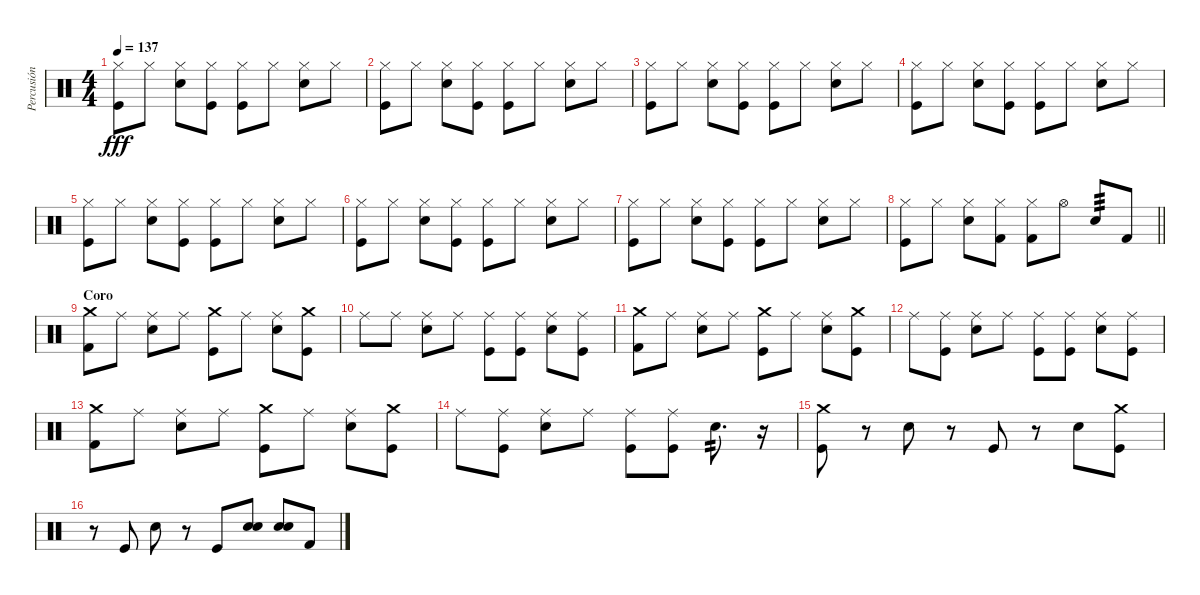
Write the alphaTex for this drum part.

\track ("Percusión" "Percusión") {instrument percussion}
\staff {score}
\articulation defaults
\ts (4 4)
\tempo 137
\clef neutral
\ks c
("Hi-Hat (closed)" "Kick (hit)").8{dy fff} "Hi-Hat (closed)".8 ("Hi-Hat (closed)" "Electric Snare (hit)").8 ("Hi-Hat (closed)" "Kick (hit)").8 ("Hi-Hat (closed)" "Kick (hit)").8 "Hi-Hat (closed)".8 ("Hi-Hat (closed)" "Electric Snare (hit)").8 "Hi-Hat (closed)".8 |
("Hi-Hat (closed)" "Kick (hit)").8 "Hi-Hat (closed)".8 ("Hi-Hat (closed)" "Electric Snare (hit)").8 ("Hi-Hat (closed)" "Kick (hit)").8 ("Hi-Hat (closed)" "Kick (hit)").8 "Hi-Hat (closed)".8 ("Hi-Hat (closed)" "Electric Snare (hit)").8 "Hi-Hat (closed)".8 |
("Hi-Hat (closed)" "Kick (hit)").8 "Hi-Hat (closed)".8 ("Hi-Hat (closed)" "Electric Snare (hit)").8 ("Hi-Hat (closed)" "Kick (hit)").8 ("Hi-Hat (closed)" "Kick (hit)").8 "Hi-Hat (closed)".8 ("Hi-Hat (closed)" "Electric Snare (hit)").8 "Hi-Hat (closed)".8 |
("Hi-Hat (closed)" "Kick (hit)").8 "Hi-Hat (closed)".8 ("Hi-Hat (closed)" "Electric Snare (hit)").8 ("Hi-Hat (closed)" "Kick (hit)").8 ("Hi-Hat (closed)" "Kick (hit)").8 "Hi-Hat (closed)".8 ("Hi-Hat (closed)" "Electric Snare (hit)").8 "Hi-Hat (closed)".8 |
("Hi-Hat (closed)" "Kick (hit)").8 "Hi-Hat (closed)".8 ("Hi-Hat (closed)" "Electric Snare (hit)").8 ("Hi-Hat (closed)" "Kick (hit)").8 ("Hi-Hat (closed)" "Kick (hit)").8 "Hi-Hat (closed)".8 ("Hi-Hat (closed)" "Electric Snare (hit)").8 "Hi-Hat (closed)".8 |
("Hi-Hat (closed)" "Kick (hit)").8 "Hi-Hat (closed)".8 ("Hi-Hat (closed)" "Electric Snare (hit)").8 ("Hi-Hat (closed)" "Kick (hit)").8 ("Hi-Hat (closed)" "Kick (hit)").8 "Hi-Hat (closed)".8 ("Hi-Hat (closed)" "Electric Snare (hit)").8 "Hi-Hat (closed)".8 |
("Hi-Hat (closed)" "Kick (hit)").8 "Hi-Hat (closed)".8 ("Hi-Hat (closed)" "Electric Snare (hit)").8 ("Hi-Hat (closed)" "Kick (hit)").8 ("Hi-Hat (closed)" "Kick (hit)").8 "Hi-Hat (closed)".8 ("Hi-Hat (closed)" "Electric Snare (hit)").8 "Hi-Hat (closed)".8 |
\barLineRight lightlight
("Hi-Hat (closed)" "Kick (hit)").8 "Hi-Hat (closed)".8 ("Hi-Hat (closed)" "Electric Snare (hit)").8 ("Hi-Hat (closed)" "Kick (hit) 2").8 ("Hi-Hat (closed)" "Kick (hit) 2").8 "Hi-Hat (open)".8 "Electric Snare (hit)".8{tp 3} "Kick (hit) 2".8 |
\section ("" "Coro")
("Crash medium (hit)" "Kick (hit) 2").8 "Ride (middle)".8 ("Ride (middle)" "Electric Snare (hit)").8 "Ride (middle)".8 ("Crash medium (hit)" "Kick (hit)").8 "Ride (middle)".8 ("Ride (middle)" "Electric Snare (hit)").8 ("Crash medium (hit)" "Kick (hit)").8 |
"Ride (middle)".8 "Ride (middle)".8 ("Ride (middle)" "Electric Snare (hit)").8 "Ride (middle)".8 ("Ride (middle)" "Kick (hit)").8 ("Ride (middle)" "Kick (hit)").8 ("Ride (middle)" "Electric Snare (hit)").8 ("Ride (middle)" "Kick (hit)").8 |
("Crash medium (hit)" "Kick (hit) 2").8 "Ride (middle)".8 ("Ride (middle)" "Electric Snare (hit)").8 "Ride (middle)".8 ("Crash medium (hit)" "Kick (hit)").8 "Ride (middle)".8 ("Ride (middle)" "Electric Snare (hit)").8 ("Crash medium (hit)" "Kick (hit)").8 |
"Ride (middle)".8 ("Ride (middle)" "Kick (hit)").8 ("Ride (middle)" "Electric Snare (hit)").8 "Ride (middle)".8 ("Ride (middle)" "Kick (hit)").8 ("Ride (middle)" "Kick (hit)").8 ("Ride (middle)" "Electric Snare (hit)").8 ("Ride (middle)" "Kick (hit)").8 |
("Crash medium (hit)" "Kick (hit) 2").8 "Ride (middle)".8 ("Ride (middle)" "Electric Snare (hit)").8 "Ride (middle)".8 ("Crash medium (hit)" "Kick (hit)").8 "Ride (middle)".8 ("Ride (middle)" "Electric Snare (hit)").8 ("Crash medium (hit)" "Kick (hit)").8 |
"Ride (middle)".8 ("Ride (middle)" "Kick (hit)").8 ("Ride (middle)" "Electric Snare (hit)").8 "Ride (middle)".8 ("Ride (middle)" "Kick (hit)").8 ("Ride (middle)" "Kick (hit)").8 "Electric Snare (hit)".8{d tp 2} r.16 |
("Crash medium (hit)" "Kick (hit)").8 r.8 "Electric Snare (hit)".8 r.8 "Kick (hit)".8 r.8 "Electric Snare (hit)".8 ("Crash medium (hit)" "Kick (hit)").8 |
r.8 "Kick (hit)".8 "Electric Snare (hit)".8 r.8 "Kick (hit)".8 ("Electric Snare (hit)" "Electric Snare (hit)").8 ("Electric Snare (hit)" "Electric Snare (hit)").8 "Kick (hit) 2".8
